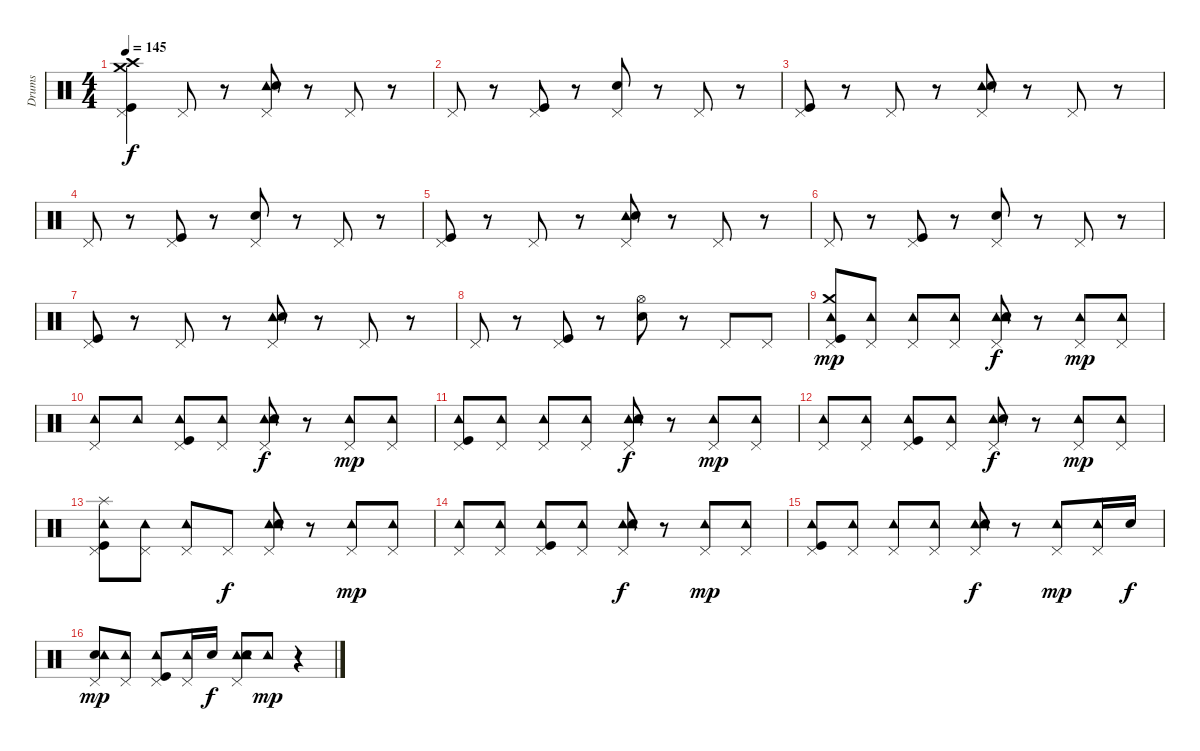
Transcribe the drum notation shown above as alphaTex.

\track ("Drums" "Drums") {instrument percussion}
\staff {score}
\articulation defaults
\ts (4 4)
\tempo 145
\clef neutral
\ks c
("Crash high (hit)" "Pedal Hi-Hat (hit)" "Crash medium (hit)" "Kick (hit)").4{dy f} "Pedal Hi-Hat (hit)".8 r.8 ("Pedal Hi-Hat (hit)" "Tambourine (hit)" "Electric Snare (hit)").8 r.8 "Pedal Hi-Hat (hit)".8 r.8 |
"Pedal Hi-Hat (hit)".8 r.8 ("Pedal Hi-Hat (hit)" "Kick (hit)").8 r.8 ("Pedal Hi-Hat (hit)" "Electric Snare (hit)").8 r.8 "Pedal Hi-Hat (hit)".8 r.8 |
("Pedal Hi-Hat (hit)" "Kick (hit)").8 r.8 "Pedal Hi-Hat (hit)".8 r.8 ("Pedal Hi-Hat (hit)" "Tambourine (hit)" "Electric Snare (hit)").8 r.8 "Pedal Hi-Hat (hit)".8 r.8 |
"Pedal Hi-Hat (hit)".8 r.8 ("Pedal Hi-Hat (hit)" "Kick (hit)").8 r.8 ("Pedal Hi-Hat (hit)" "Electric Snare (hit)").8 r.8 "Pedal Hi-Hat (hit)".8 r.8 |
("Pedal Hi-Hat (hit)" "Kick (hit)").8 r.8 "Pedal Hi-Hat (hit)".8 r.8 ("Pedal Hi-Hat (hit)" "Tambourine (hit)" "Electric Snare (hit)").8 r.8 "Pedal Hi-Hat (hit)".8 r.8 |
"Pedal Hi-Hat (hit)".8 r.8 ("Pedal Hi-Hat (hit)" "Kick (hit)").8 r.8 ("Pedal Hi-Hat (hit)" "Electric Snare (hit)").8 r.8 "Pedal Hi-Hat (hit)".8 r.8 |
("Pedal Hi-Hat (hit)" "Kick (hit)").8 r.8 "Pedal Hi-Hat (hit)".8 r.8 ("Pedal Hi-Hat (hit)" "Tambourine (hit)" "Electric Snare (hit)").8 r.8 "Pedal Hi-Hat (hit)".8 r.8 |
"Pedal Hi-Hat (hit)".8 r.8 ("Pedal Hi-Hat (hit)" "Kick (hit)").8 r.8 ("Hi-Hat (open)" "Electric Snare (hit)").8 r.8 "Pedal Hi-Hat (hit)".8 "Pedal Hi-Hat (hit)".8 |
("Tambourine (hit)" "Pedal Hi-Hat (hit)" "Crash medium (hit)" "Kick (hit)").8{dy mp} ("Pedal Hi-Hat (hit)" "Tambourine (hit)").8 ("Tambourine (hit)" "Pedal Hi-Hat (hit)").8 ("Pedal Hi-Hat (hit)" "Tambourine (hit)").8 ("Tambourine (hit)" "Pedal Hi-Hat (hit)" "Tambourine (hit)" "Electric Snare (hit)").8{dy f} r.8 ("Tambourine (hit)" "Pedal Hi-Hat (hit)").8{dy mp} ("Pedal Hi-Hat (hit)" "Tambourine (hit)").8 |
("Pedal Hi-Hat (hit)" "Tambourine (hit)").8 "Tambourine (hit)".8 ("Tambourine (hit)" "Pedal Hi-Hat (hit)" "Kick (hit)").8 ("Pedal Hi-Hat (hit)" "Tambourine (hit)").8 ("Tambourine (hit)" "Tambourine (hit)" "Pedal Hi-Hat (hit)" "Electric Snare (hit)").8{dy f} r.8 ("Tambourine (hit)" "Pedal Hi-Hat (hit)").8{dy mp} ("Pedal Hi-Hat (hit)" "Tambourine (hit)").8 |
("Tambourine (hit)" "Pedal Hi-Hat (hit)" "Kick (hit)").8 ("Tambourine (hit)" "Pedal Hi-Hat (hit)").8 ("Tambourine (hit)" "Pedal Hi-Hat (hit)").8 ("Tambourine (hit)" "Pedal Hi-Hat (hit)").8 ("Tambourine (hit)" "Pedal Hi-Hat (hit)" "Tambourine (hit)" "Electric Snare (hit)").8{dy f} r.8 ("Tambourine (hit)" "Pedal Hi-Hat (hit)").8{dy mp} ("Tambourine (hit)" "Pedal Hi-Hat (hit)").8 |
("Tambourine (hit)" "Pedal Hi-Hat (hit)").8 ("Tambourine (hit)" "Pedal Hi-Hat (hit)").8 ("Tambourine (hit)" "Pedal Hi-Hat (hit)" "Kick (hit)").8 ("Tambourine (hit)" "Pedal Hi-Hat (hit)").8 ("Tambourine (hit)" "Pedal Hi-Hat (hit)" "Electric Snare (hit)").8{dy f} r.8 ("Tambourine (hit)" "Pedal Hi-Hat (hit)").8{dy mp} ("Tambourine (hit)" "Pedal Hi-Hat (hit)").8 |
("Splash (hit)" "Tambourine (hit)" "Pedal Hi-Hat (hit)" "Kick (hit)").8 ("Tambourine (hit)" "Pedal Hi-Hat (hit)").8 ("Tambourine (hit)" "Pedal Hi-Hat (hit)").8 "Pedal Hi-Hat (hit)".8{dy f} ("Tambourine (hit)" "Pedal Hi-Hat (hit)" "Tambourine (hit)" "Electric Snare (hit)").8 r.8 ("Tambourine (hit)" "Pedal Hi-Hat (hit)").8{dy mp} ("Tambourine (hit)" "Pedal Hi-Hat (hit)").8 |
("Tambourine (hit)" "Pedal Hi-Hat (hit)").8 ("Tambourine (hit)" "Pedal Hi-Hat (hit)").8 ("Tambourine (hit)" "Pedal Hi-Hat (hit)" "Kick (hit)").8 ("Tambourine (hit)" "Pedal Hi-Hat (hit)").8 ("Tambourine (hit)" "Tambourine (hit)" "Pedal Hi-Hat (hit)" "Electric Snare (hit)").8{dy f} r.8 ("Tambourine (hit)" "Pedal Hi-Hat (hit)").8{dy mp} ("Tambourine (hit)" "Pedal Hi-Hat (hit)").8 |
("Tambourine (hit)" "Pedal Hi-Hat (hit)" "Kick (hit)").8 ("Tambourine (hit)" "Pedal Hi-Hat (hit)").8 ("Tambourine (hit)" "Pedal Hi-Hat (hit)").8 ("Tambourine (hit)" "Pedal Hi-Hat (hit)").8 ("Tambourine (hit)" "Pedal Hi-Hat (hit)" "Tambourine (hit)" "Electric Snare (hit)").8{dy f} r.8 ("Tambourine (hit)" "Pedal Hi-Hat (hit)").8{dy mp} ("Tambourine (hit)" "Pedal Hi-Hat (hit)").16 "Electric Snare (hit)".16{dy f} |
("Electric Snare (hit)" "Tambourine (hit)" "Pedal Hi-Hat (hit)").8{dy mp} ("Tambourine (hit)" "Pedal Hi-Hat (hit)").8 ("Tambourine (hit)" "Pedal Hi-Hat (hit)" "Kick (hit)").8 ("Tambourine (hit)" "Pedal Hi-Hat (hit)").16 "Electric Snare (hit)".16{dy f} ("Tambourine (hit)" "Tambourine (hit)" "Pedal Hi-Hat (hit)" "Electric Snare (hit)").8 "Tambourine (hit)".8{dy mp} r.4
